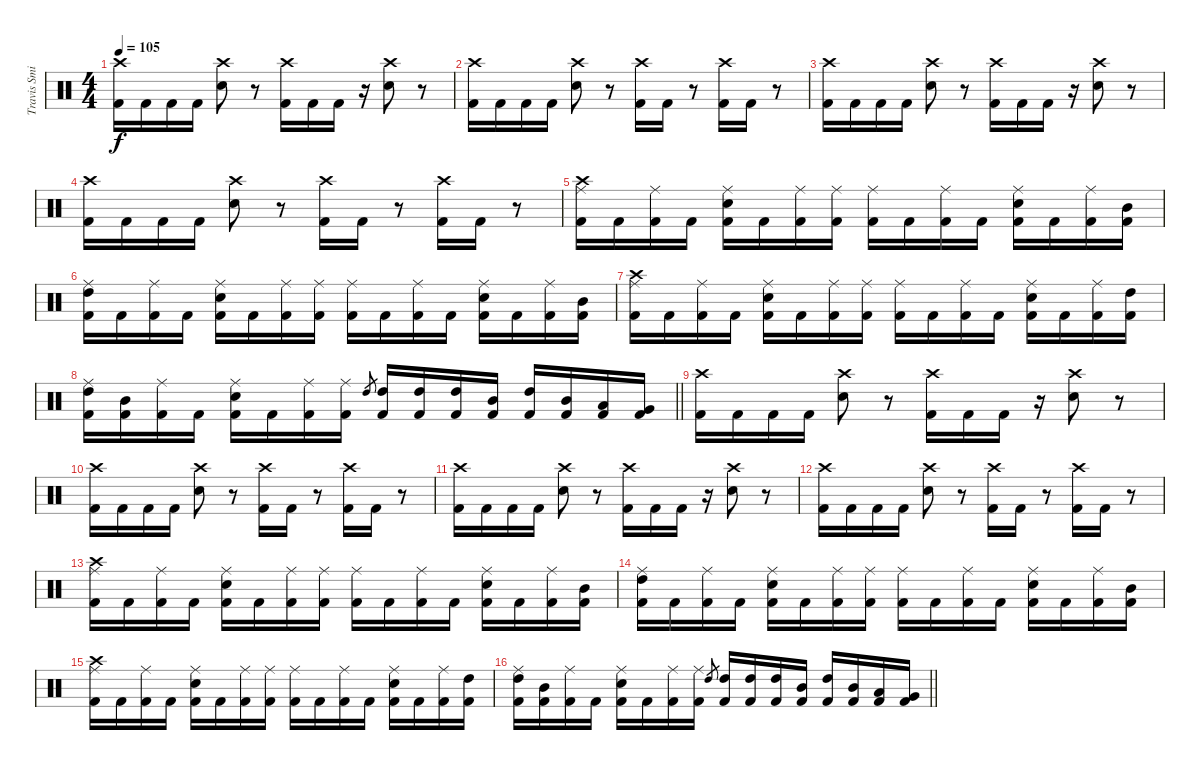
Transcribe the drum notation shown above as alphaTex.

\track ("Travis Smith" "Travis Smi") {instrument percussion}
\staff {score}
\articulation defaults
\ts (4 4)
\tempo 105
\clef neutral
\ks c
("Crash high (hit)" "Kick (hit) 2").16{dy f} "Kick (hit) 2".16 "Kick (hit) 2".16 "Kick (hit) 2".16 ("Crash high (hit)" "Snare (hit) 2").8 r.8 ("Crash high (hit)" "Kick (hit) 2").16 "Kick (hit) 2".16 "Kick (hit) 2".16 r.16 ("Crash high (hit)" "Snare (hit) 2").8 r.8 |
("Crash high (hit)" "Kick (hit) 2").16 "Kick (hit) 2".16 "Kick (hit) 2".16 "Kick (hit) 2".16 ("Crash high (hit)" "Snare (hit) 2").8 r.8 ("Crash high (hit)" "Kick (hit) 2").16 "Kick (hit) 2".16 r.8 ("Crash high (hit)" "Kick (hit) 2").16 "Kick (hit) 2".16 r.8 |
("Crash high (hit)" "Kick (hit) 2").16 "Kick (hit) 2".16 "Kick (hit) 2".16 "Kick (hit) 2".16 ("Crash high (hit)" "Snare (hit) 2").8 r.8 ("Crash high (hit)" "Kick (hit) 2").16 "Kick (hit) 2".16 "Kick (hit) 2".16 r.16 ("Crash high (hit)" "Snare (hit) 2").8 r.8 |
("Crash high (hit)" "Kick (hit) 2").16 "Kick (hit) 2".16 "Kick (hit) 2".16 "Kick (hit) 2".16 ("Crash high (hit)" "Snare (hit) 2").8 r.8 ("Crash high (hit)" "Kick (hit) 2").16 "Kick (hit) 2".16 r.8 ("Crash high (hit)" "Kick (hit) 2").16 "Kick (hit) 2".16 r.8 |
("Ride (middle)" "Crash high (hit)" "Kick (hit) 2").16 "Kick (hit) 2".16 ("Ride (middle)" "Kick (hit) 2").16 "Kick (hit) 2".16 ("Ride (middle)" "Snare (hit) 2" "Kick (hit) 2").16 "Kick (hit) 2".16 ("Ride (middle)" "Kick (hit) 2").16 ("Ride (middle)" "Kick (hit) 2").16 ("Ride (middle)" "Kick (hit) 2").16 "Kick (hit) 2".16 ("Ride (middle)" "Kick (hit) 2").16 "Kick (hit) 2".16 ("Ride (middle)" "Snare (hit) 2" "Kick (hit) 2").16 "Kick (hit) 2".16 ("Ride (middle)" "Kick (hit) 2").16 ("Mid Tom (hit)" "Kick (hit) 2").16 |
("Ride (middle)" "High Tom (hit)" "Kick (hit) 2").16 "Kick (hit) 2".16 ("Ride (middle)" "Kick (hit) 2").16 "Kick (hit) 2".16 ("Ride (middle)" "Snare (hit) 2" "Kick (hit) 2").16 "Kick (hit) 2".16 ("Ride (middle)" "Kick (hit) 2").16 ("Ride (middle)" "Kick (hit) 2").16 ("Ride (middle)" "Kick (hit) 2").16 "Kick (hit) 2".16 ("Ride (middle)" "Kick (hit) 2").16 "Kick (hit) 2".16 ("Ride (middle)" "Snare (hit) 2" "Kick (hit) 2").16 "Kick (hit) 2".16 ("Ride (middle)" "Kick (hit) 2").16 ("Mid Tom (hit)" "Kick (hit) 2").16 |
("Ride (middle)" "Crash high (hit)" "Kick (hit) 2").16 "Kick (hit) 2".16 ("Ride (middle)" "Kick (hit) 2").16 "Kick (hit) 2".16 ("Ride (middle)" "Snare (hit) 2" "Kick (hit) 2").16 "Kick (hit) 2".16 ("Ride (middle)" "Kick (hit) 2").16 ("Ride (middle)" "Kick (hit) 2").16 ("Ride (middle)" "Kick (hit) 2").16 "Kick (hit) 2".16 ("Ride (middle)" "Kick (hit) 2").16 "Kick (hit) 2".16 ("Ride (middle)" "Snare (hit) 2" "Kick (hit) 2").16 "Kick (hit) 2".16 ("Ride (middle)" "Kick (hit) 2").16 ("High Tom (hit)" "Kick (hit) 2").16 |
\barLineRight lightlight
("Ride (middle)" "High Tom (hit)" "Kick (hit) 2").16 ("Mid Tom (hit)" "Kick (hit) 2").16 ("Ride (middle)" "Kick (hit) 2").16 "Kick (hit) 2".16 ("Ride (middle)" "Snare (hit) 2" "Kick (hit) 2").16 "Kick (hit) 2".16 ("Ride (middle)" "Kick (hit) 2").16 ("Ride (middle)" "Kick (hit) 2").16 "High Tom (hit)".8{gr} ("High Tom (hit)" "Kick (hit) 2").16 ("High Tom (hit)" "Kick (hit) 2").16 ("High Tom (hit)" "Kick (hit) 2").16 ("Mid Tom (hit)" "Kick (hit) 2").16 ("High Tom (hit)" "Kick (hit) 2").16 ("Mid Tom (hit)" "Kick (hit) 2").16 ("Low Tom (hit)" "Kick (hit) 2").16 ("Very Low Tom (hit)" "Kick (hit) 2").16 |
("Crash high (hit)" "Kick (hit) 2").16 "Kick (hit) 2".16 "Kick (hit) 2".16 "Kick (hit) 2".16 ("Crash high (hit)" "Snare (hit) 2").8 r.8 ("Crash high (hit)" "Kick (hit) 2").16 "Kick (hit) 2".16 "Kick (hit) 2".16 r.16 ("Crash high (hit)" "Snare (hit) 2").8 r.8 |
("Crash high (hit)" "Kick (hit) 2").16 "Kick (hit) 2".16 "Kick (hit) 2".16 "Kick (hit) 2".16 ("Crash high (hit)" "Snare (hit) 2").8 r.8 ("Crash high (hit)" "Kick (hit) 2").16 "Kick (hit) 2".16 r.8 ("Crash high (hit)" "Kick (hit) 2").16 "Kick (hit) 2".16 r.8 |
("Crash high (hit)" "Kick (hit) 2").16 "Kick (hit) 2".16 "Kick (hit) 2".16 "Kick (hit) 2".16 ("Crash high (hit)" "Snare (hit) 2").8 r.8 ("Crash high (hit)" "Kick (hit) 2").16 "Kick (hit) 2".16 "Kick (hit) 2".16 r.16 ("Crash high (hit)" "Snare (hit) 2").8 r.8 |
("Crash high (hit)" "Kick (hit) 2").16 "Kick (hit) 2".16 "Kick (hit) 2".16 "Kick (hit) 2".16 ("Crash high (hit)" "Snare (hit) 2").8 r.8 ("Crash high (hit)" "Kick (hit) 2").16 "Kick (hit) 2".16 r.8 ("Crash high (hit)" "Kick (hit) 2").16 "Kick (hit) 2".16 r.8 |
("Ride (middle)" "Crash high (hit)" "Kick (hit) 2").16 "Kick (hit) 2".16 ("Ride (middle)" "Kick (hit) 2").16 "Kick (hit) 2".16 ("Ride (middle)" "Snare (hit) 2" "Kick (hit) 2").16 "Kick (hit) 2".16 ("Ride (middle)" "Kick (hit) 2").16 ("Ride (middle)" "Kick (hit) 2").16 ("Ride (middle)" "Kick (hit) 2").16 "Kick (hit) 2".16 ("Ride (middle)" "Kick (hit) 2").16 "Kick (hit) 2".16 ("Ride (middle)" "Snare (hit) 2" "Kick (hit) 2").16 "Kick (hit) 2".16 ("Ride (middle)" "Kick (hit) 2").16 ("Mid Tom (hit)" "Kick (hit) 2").16 |
("Ride (middle)" "High Tom (hit)" "Kick (hit) 2").16 "Kick (hit) 2".16 ("Ride (middle)" "Kick (hit) 2").16 "Kick (hit) 2".16 ("Ride (middle)" "Snare (hit) 2" "Kick (hit) 2").16 "Kick (hit) 2".16 ("Ride (middle)" "Kick (hit) 2").16 ("Ride (middle)" "Kick (hit) 2").16 ("Ride (middle)" "Kick (hit) 2").16 "Kick (hit) 2".16 ("Ride (middle)" "Kick (hit) 2").16 "Kick (hit) 2".16 ("Ride (middle)" "Snare (hit) 2" "Kick (hit) 2").16 "Kick (hit) 2".16 ("Ride (middle)" "Kick (hit) 2").16 ("Mid Tom (hit)" "Kick (hit) 2").16 |
("Ride (middle)" "Crash high (hit)" "Kick (hit) 2").16 "Kick (hit) 2".16 ("Ride (middle)" "Kick (hit) 2").16 "Kick (hit) 2".16 ("Ride (middle)" "Snare (hit) 2" "Kick (hit) 2").16 "Kick (hit) 2".16 ("Ride (middle)" "Kick (hit) 2").16 ("Ride (middle)" "Kick (hit) 2").16 ("Ride (middle)" "Kick (hit) 2").16 "Kick (hit) 2".16 ("Ride (middle)" "Kick (hit) 2").16 "Kick (hit) 2".16 ("Ride (middle)" "Snare (hit) 2" "Kick (hit) 2").16 "Kick (hit) 2".16 ("Ride (middle)" "Kick (hit) 2").16 ("High Tom (hit)" "Kick (hit) 2").16 |
\barLineRight lightlight
("Ride (middle)" "High Tom (hit)" "Kick (hit) 2").16 ("Mid Tom (hit)" "Kick (hit) 2").16 ("Ride (middle)" "Kick (hit) 2").16 "Kick (hit) 2".16 ("Ride (middle)" "Snare (hit) 2" "Kick (hit) 2").16 "Kick (hit) 2".16 ("Ride (middle)" "Kick (hit) 2").16 ("Ride (middle)" "Kick (hit) 2").16 "High Tom (hit)".8{gr} ("High Tom (hit)" "Kick (hit) 2").16 ("High Tom (hit)" "Kick (hit) 2").16 ("High Tom (hit)" "Kick (hit) 2").16 ("Mid Tom (hit)" "Kick (hit) 2").16 ("High Tom (hit)" "Kick (hit) 2").16 ("Mid Tom (hit)" "Kick (hit) 2").16 ("Low Tom (hit)" "Kick (hit) 2").16 ("Very Low Tom (hit)" "Kick (hit) 2").16
